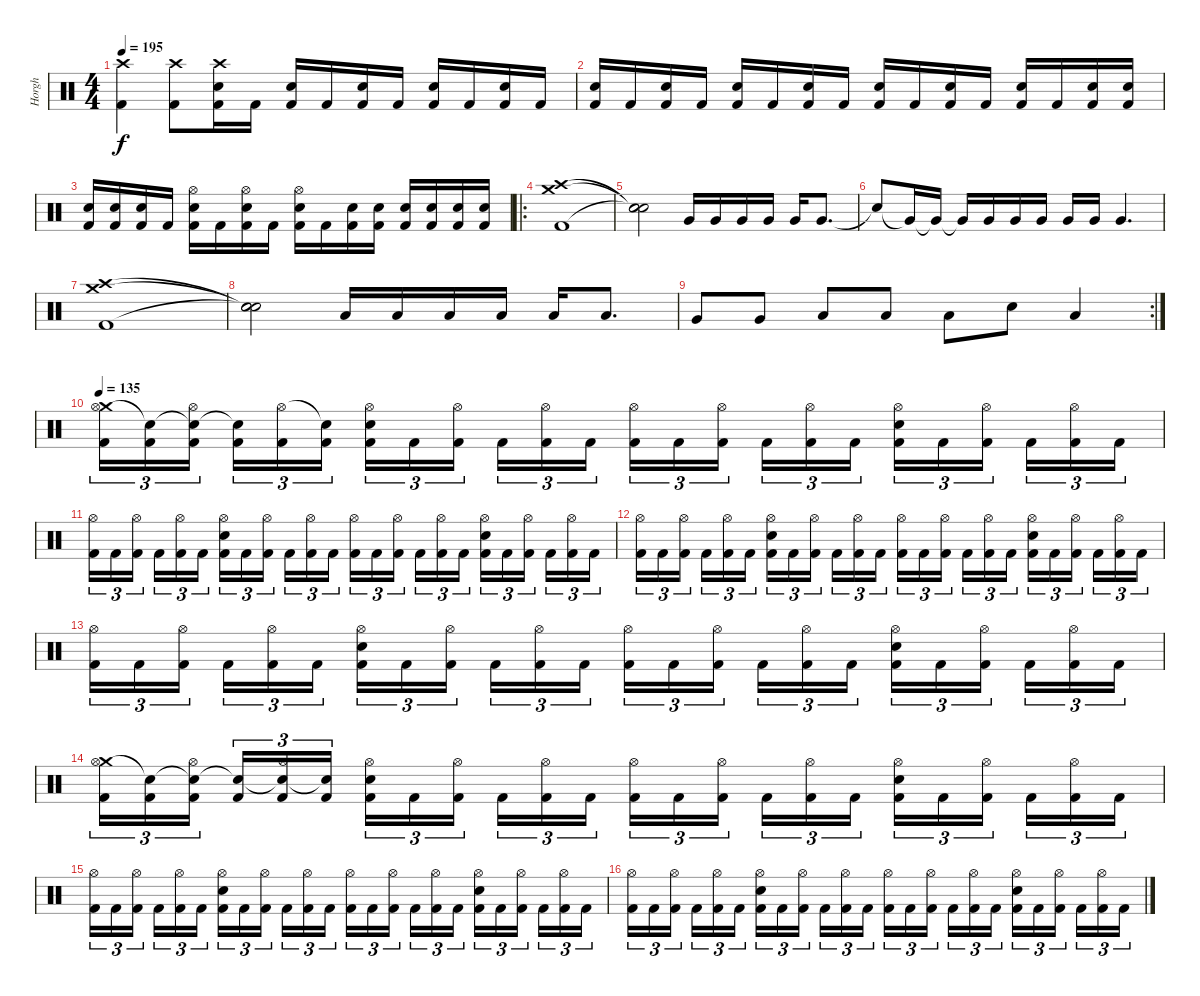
\track ("Horgh" "Horgh") {instrument percussion}
\staff {score}
\articulation defaults
\ts (4 4)
\tempo 195
\clef neutral
\ks c
("Crash high (hit)" "Kick (hit) 2").4{dy f} ("Crash high (hit)" "Kick (hit) 2").8 ("Crash high (hit)" "Electric Snare (hit)" "Kick (hit) 2").16 "Kick (hit) 2".16 ("Electric Snare (hit)" "Kick (hit) 2").16 "Kick (hit) 2".16 ("Electric Snare (hit)" "Kick (hit) 2").16 "Kick (hit) 2".16 ("Electric Snare (hit)" "Kick (hit) 2").16 "Kick (hit) 2".16 ("Electric Snare (hit)" "Kick (hit) 2").16 "Kick (hit) 2".16 |
("Electric Snare (hit)" "Kick (hit) 2").16 "Kick (hit) 2".16 ("Electric Snare (hit)" "Kick (hit) 2").16 "Kick (hit) 2".16 ("Electric Snare (hit)" "Kick (hit) 2").16 "Kick (hit) 2".16 ("Electric Snare (hit)" "Kick (hit) 2").16 "Kick (hit) 2".16 ("Electric Snare (hit)" "Kick (hit) 2").16 "Kick (hit) 2".16 ("Electric Snare (hit)" "Kick (hit) 2").16 "Kick (hit) 2".16 ("Electric Snare (hit)" "Kick (hit) 2").16 "Kick (hit) 2".16 ("Electric Snare (hit)" "Kick (hit) 2").16 ("Electric Snare (hit)" "Kick (hit) 2").16 |
("Electric Snare (hit)" "Kick (hit) 2").16 ("Electric Snare (hit)" "Kick (hit) 2").16 ("Electric Snare (hit)" "Kick (hit) 2").16 "Kick (hit) 2".16 ("Hi-Hat (open)" "Electric Snare (hit)" "Kick (hit) 2").16 "Kick (hit) 2".16 ("Hi-Hat (open)" "Electric Snare (hit)" "Kick (hit) 2").16 "Kick (hit) 2".16 ("Hi-Hat (open)" "Electric Snare (hit)" "Kick (hit) 2").16 "Kick (hit) 2".16 ("Electric Snare (hit)" "Kick (hit) 2").16 ("Electric Snare (hit)" "Kick (hit) 2").16 ("Electric Snare (hit)" "Kick (hit) 2").16 ("Electric Snare (hit)" "Kick (hit) 2").16 ("Electric Snare (hit)" "Kick (hit) 2").16 ("Electric Snare (hit)" "Kick (hit) 2").16 |
\ro
("Crash high (hit)" "Crash medium (hit)" "Kick (hit) 2").1 |
("Snare (hit)"{t} "Snare (hit)"{t} "Snare (hit)"{t}).2 "Very Low Tom (hit)".16 "Very Low Tom (hit)".16 "Very Low Tom (hit)".16 "Very Low Tom (hit)".16 "Very Low Tom (hit)".16 "Very Low Tom (hit)".8{d} |
"Snare (hit)"{t}.8 "Very Low Tom (hit)"{t}.16 "Very Low Tom (hit)"{t}.16 "Very Low Tom (hit)"{t}.16 "Very Low Tom (hit)".16 "Very Low Tom (hit)".16 "Very Low Tom (hit)".16 "Very Low Tom (hit)".16 "Very Low Tom (hit)".16 "Very Low Tom (hit)".4{d} |
("Crash high (hit)" "Crash medium (hit)" "Kick (hit) 2").1 |
("Snare (hit)"{t} "Snare (hit)"{t} "Snare (hit)"{t}).2 "Low Tom (hit)".16 "Low Tom (hit)".16 "Low Tom (hit)".16 "Low Tom (hit)".16 "Low Tom (hit)".16 "Low Tom (hit)".8{d} |
\rc 2 "Very Low Tom (hit)".8 "Very Low Tom (hit)".8 "Low Floor Tom (hit)".8 "Low Floor Tom (hit)".8 "Low Floor Tom (hit)".8 "Electric Snare (hit)".8 "Low Floor Tom (hit)".4
|
\tempo 135
("Crash medium (hit)" "Hi-Hat (open)" "Kick (hit) 2").16{tu (3 2)} ("Snare (hit)"{t} "Kick (hit) 2").16{tu (3 2)} ("Snare (hit)"{t} "Hi-Hat (open)" "Kick (hit) 2").16{tu (3 2) beam splitsecondary} ("Snare (hit)"{t} "Kick (hit) 2").16{tu (3 2)} ("Hi-Hat (open)" "Kick (hit) 2").16{tu (3 2)} ("Snare (hit)"{t} "Kick (hit) 2").16{tu (3 2)} ("Hi-Hat (open)" "Electric Snare (hit)" "Kick (hit) 2").16{tu (3 2)} "Kick (hit) 2".16{tu (3 2)} ("Hi-Hat (open)" "Kick (hit) 2").16{tu (3 2) beam splitsecondary} "Kick (hit) 2".16{tu (3 2)} ("Hi-Hat (open)" "Kick (hit) 2").16{tu (3 2)} "Kick (hit) 2".16{tu (3 2)} ("Hi-Hat (open)" "Kick (hit) 2").16{tu (3 2)} "Kick (hit) 2".16{tu (3 2)} ("Hi-Hat (open)" "Kick (hit) 2").16{tu (3 2) beam splitsecondary} "Kick (hit) 2".16{tu (3 2)} ("Hi-Hat (open)" "Kick (hit) 2").16{tu (3 2)} "Kick (hit) 2".16{tu (3 2)} ("Hi-Hat (open)" "Electric Snare (hit)" "Kick (hit) 2").16{tu (3 2)} "Kick (hit) 2".16{tu (3 2)} ("Hi-Hat (open)" "Kick (hit) 2").16{tu (3 2) beam splitsecondary} "Kick (hit) 2".16{tu (3 2)} ("Hi-Hat (open)" "Kick (hit) 2").16{tu (3 2)} "Kick (hit) 2".16{tu (3 2)} |
("Hi-Hat (open)" "Kick (hit) 2").16{tu (3 2)} "Kick (hit) 2".16{tu (3 2)} ("Hi-Hat (open)" "Kick (hit) 2").16{tu (3 2) beam splitsecondary} "Kick (hit) 2".16{tu (3 2)} ("Hi-Hat (open)" "Kick (hit) 2").16{tu (3 2)} "Kick (hit) 2".16{tu (3 2)} ("Hi-Hat (open)" "Electric Snare (hit)" "Kick (hit) 2").16{tu (3 2)} "Kick (hit) 2".16{tu (3 2)} ("Hi-Hat (open)" "Kick (hit) 2").16{tu (3 2) beam splitsecondary} "Kick (hit) 2".16{tu (3 2)} ("Hi-Hat (open)" "Kick (hit) 2").16{tu (3 2)} "Kick (hit) 2".16{tu (3 2)} ("Hi-Hat (open)" "Kick (hit) 2").16{tu (3 2)} "Kick (hit) 2".16{tu (3 2)} ("Hi-Hat (open)" "Kick (hit) 2").16{tu (3 2) beam splitsecondary} "Kick (hit) 2".16{tu (3 2)} ("Hi-Hat (open)" "Kick (hit) 2").16{tu (3 2)} "Kick (hit) 2".16{tu (3 2)} ("Hi-Hat (open)" "Electric Snare (hit)" "Kick (hit) 2").16{tu (3 2)} "Kick (hit) 2".16{tu (3 2)} ("Hi-Hat (open)" "Kick (hit) 2").16{tu (3 2) beam splitsecondary} "Kick (hit) 2".16{tu (3 2)} ("Hi-Hat (open)" "Kick (hit) 2").16{tu (3 2)} "Kick (hit) 2".16{tu (3 2)} |
("Hi-Hat (open)" "Kick (hit) 2").16{tu (3 2)} "Kick (hit) 2".16{tu (3 2)} ("Hi-Hat (open)" "Kick (hit) 2").16{tu (3 2) beam splitsecondary} "Kick (hit) 2".16{tu (3 2)} ("Hi-Hat (open)" "Kick (hit) 2").16{tu (3 2)} "Kick (hit) 2".16{tu (3 2)} ("Hi-Hat (open)" "Electric Snare (hit)" "Kick (hit) 2").16{tu (3 2)} "Kick (hit) 2".16{tu (3 2)} ("Hi-Hat (open)" "Kick (hit) 2").16{tu (3 2) beam splitsecondary} "Kick (hit) 2".16{tu (3 2)} ("Hi-Hat (open)" "Kick (hit) 2").16{tu (3 2)} "Kick (hit) 2".16{tu (3 2)} ("Hi-Hat (open)" "Kick (hit) 2").16{tu (3 2)} "Kick (hit) 2".16{tu (3 2)} ("Hi-Hat (open)" "Kick (hit) 2").16{tu (3 2) beam splitsecondary} "Kick (hit) 2".16{tu (3 2)} ("Hi-Hat (open)" "Kick (hit) 2").16{tu (3 2)} "Kick (hit) 2".16{tu (3 2)} ("Hi-Hat (open)" "Electric Snare (hit)" "Kick (hit) 2").16{tu (3 2)} "Kick (hit) 2".16{tu (3 2)} ("Hi-Hat (open)" "Kick (hit) 2").16{tu (3 2) beam splitsecondary} "Kick (hit) 2".16{tu (3 2)} ("Hi-Hat (open)" "Kick (hit) 2").16{tu (3 2)} "Kick (hit) 2".16{tu (3 2)} |
("Hi-Hat (open)" "Kick (hit) 2").16{tu (3 2)} "Kick (hit) 2".16{tu (3 2)} ("Hi-Hat (open)" "Kick (hit) 2").16{tu (3 2) beam splitsecondary} "Kick (hit) 2".16{tu (3 2)} ("Hi-Hat (open)" "Kick (hit) 2").16{tu (3 2)} "Kick (hit) 2".16{tu (3 2)} ("Hi-Hat (open)" "Electric Snare (hit)" "Kick (hit) 2").16{tu (3 2)} "Kick (hit) 2".16{tu (3 2)} ("Hi-Hat (open)" "Kick (hit) 2").16{tu (3 2) beam splitsecondary} "Kick (hit) 2".16{tu (3 2)} ("Hi-Hat (open)" "Kick (hit) 2").16{tu (3 2)} "Kick (hit) 2".16{tu (3 2)} ("Hi-Hat (open)" "Kick (hit) 2").16{tu (3 2)} "Kick (hit) 2".16{tu (3 2)} ("Hi-Hat (open)" "Kick (hit) 2").16{tu (3 2) beam splitsecondary} "Kick (hit) 2".16{tu (3 2)} ("Hi-Hat (open)" "Kick (hit) 2").16{tu (3 2)} "Kick (hit) 2".16{tu (3 2)} ("Hi-Hat (open)" "Electric Snare (hit)" "Kick (hit) 2").16{tu (3 2)} "Kick (hit) 2".16{tu (3 2)} ("Hi-Hat (open)" "Kick (hit) 2").16{tu (3 2) beam splitsecondary} "Kick (hit) 2".16{tu (3 2)} ("Hi-Hat (open)" "Kick (hit) 2").16{tu (3 2)} "Kick (hit) 2".16{tu (3 2)} |
("Crash medium (hit)" "Hi-Hat (open)" "Kick (hit) 2").16{tu (3 2)} ("Snare (hit)"{t} "Kick (hit) 2").16{tu (3 2)} ("Snare (hit)"{t} "Hi-Hat (open)" "Kick (hit) 2").16{tu (3 2) beam splitsecondary} ("Snare (hit)"{t} "Kick (hit) 2").16{tu (3 2)} ("Snare (hit)"{t} "Hi-Hat (open)" "Kick (hit) 2").16{tu (3 2)} ("Snare (hit)"{t} "Kick (hit) 2").16{tu (3 2)} ("Hi-Hat (open)" "Electric Snare (hit)" "Kick (hit) 2").16{tu (3 2)} "Kick (hit) 2".16{tu (3 2)} ("Hi-Hat (open)" "Kick (hit) 2").16{tu (3 2) beam splitsecondary} "Kick (hit) 2".16{tu (3 2)} ("Hi-Hat (open)" "Kick (hit) 2").16{tu (3 2)} "Kick (hit) 2".16{tu (3 2)} ("Hi-Hat (open)" "Kick (hit) 2").16{tu (3 2)} "Kick (hit) 2".16{tu (3 2)} ("Hi-Hat (open)" "Kick (hit) 2").16{tu (3 2) beam splitsecondary} "Kick (hit) 2".16{tu (3 2)} ("Hi-Hat (open)" "Kick (hit) 2").16{tu (3 2)} "Kick (hit) 2".16{tu (3 2)} ("Hi-Hat (open)" "Electric Snare (hit)" "Kick (hit) 2").16{tu (3 2)} "Kick (hit) 2".16{tu (3 2)} ("Hi-Hat (open)" "Kick (hit) 2").16{tu (3 2) beam splitsecondary} "Kick (hit) 2".16{tu (3 2)} ("Hi-Hat (open)" "Kick (hit) 2").16{tu (3 2)} "Kick (hit) 2".16{tu (3 2)} |
("Hi-Hat (open)" "Kick (hit) 2").16{tu (3 2)} "Kick (hit) 2".16{tu (3 2)} ("Hi-Hat (open)" "Kick (hit) 2").16{tu (3 2) beam splitsecondary} "Kick (hit) 2".16{tu (3 2)} ("Hi-Hat (open)" "Kick (hit) 2").16{tu (3 2)} "Kick (hit) 2".16{tu (3 2)} ("Hi-Hat (open)" "Electric Snare (hit)" "Kick (hit) 2").16{tu (3 2)} "Kick (hit) 2".16{tu (3 2)} ("Hi-Hat (open)" "Kick (hit) 2").16{tu (3 2) beam splitsecondary} "Kick (hit) 2".16{tu (3 2)} ("Hi-Hat (open)" "Kick (hit) 2").16{tu (3 2)} "Kick (hit) 2".16{tu (3 2)} ("Hi-Hat (open)" "Kick (hit) 2").16{tu (3 2)} "Kick (hit) 2".16{tu (3 2)} ("Hi-Hat (open)" "Kick (hit) 2").16{tu (3 2) beam splitsecondary} "Kick (hit) 2".16{tu (3 2)} ("Hi-Hat (open)" "Kick (hit) 2").16{tu (3 2)} "Kick (hit) 2".16{tu (3 2)} ("Hi-Hat (open)" "Electric Snare (hit)" "Kick (hit) 2").16{tu (3 2)} "Kick (hit) 2".16{tu (3 2)} ("Hi-Hat (open)" "Kick (hit) 2").16{tu (3 2) beam splitsecondary} "Kick (hit) 2".16{tu (3 2)} ("Hi-Hat (open)" "Kick (hit) 2").16{tu (3 2)} "Kick (hit) 2".16{tu (3 2)} |
("Hi-Hat (open)" "Kick (hit) 2").16{tu (3 2)} "Kick (hit) 2".16{tu (3 2)} ("Hi-Hat (open)" "Kick (hit) 2").16{tu (3 2) beam splitsecondary} "Kick (hit) 2".16{tu (3 2)} ("Hi-Hat (open)" "Kick (hit) 2").16{tu (3 2)} "Kick (hit) 2".16{tu (3 2)} ("Hi-Hat (open)" "Electric Snare (hit)" "Kick (hit) 2").16{tu (3 2)} "Kick (hit) 2".16{tu (3 2)} ("Hi-Hat (open)" "Kick (hit) 2").16{tu (3 2) beam splitsecondary} "Kick (hit) 2".16{tu (3 2)} ("Hi-Hat (open)" "Kick (hit) 2").16{tu (3 2)} "Kick (hit) 2".16{tu (3 2)} ("Hi-Hat (open)" "Kick (hit) 2").16{tu (3 2)} "Kick (hit) 2".16{tu (3 2)} ("Hi-Hat (open)" "Kick (hit) 2").16{tu (3 2) beam splitsecondary} "Kick (hit) 2".16{tu (3 2)} ("Hi-Hat (open)" "Kick (hit) 2").16{tu (3 2)} "Kick (hit) 2".16{tu (3 2)} ("Hi-Hat (open)" "Electric Snare (hit)" "Kick (hit) 2").16{tu (3 2)} "Kick (hit) 2".16{tu (3 2)} ("Hi-Hat (open)" "Kick (hit) 2").16{tu (3 2) beam splitsecondary} "Kick (hit) 2".16{tu (3 2)} ("Hi-Hat (open)" "Kick (hit) 2").16{tu (3 2)} "Kick (hit) 2".16{tu (3 2)}
